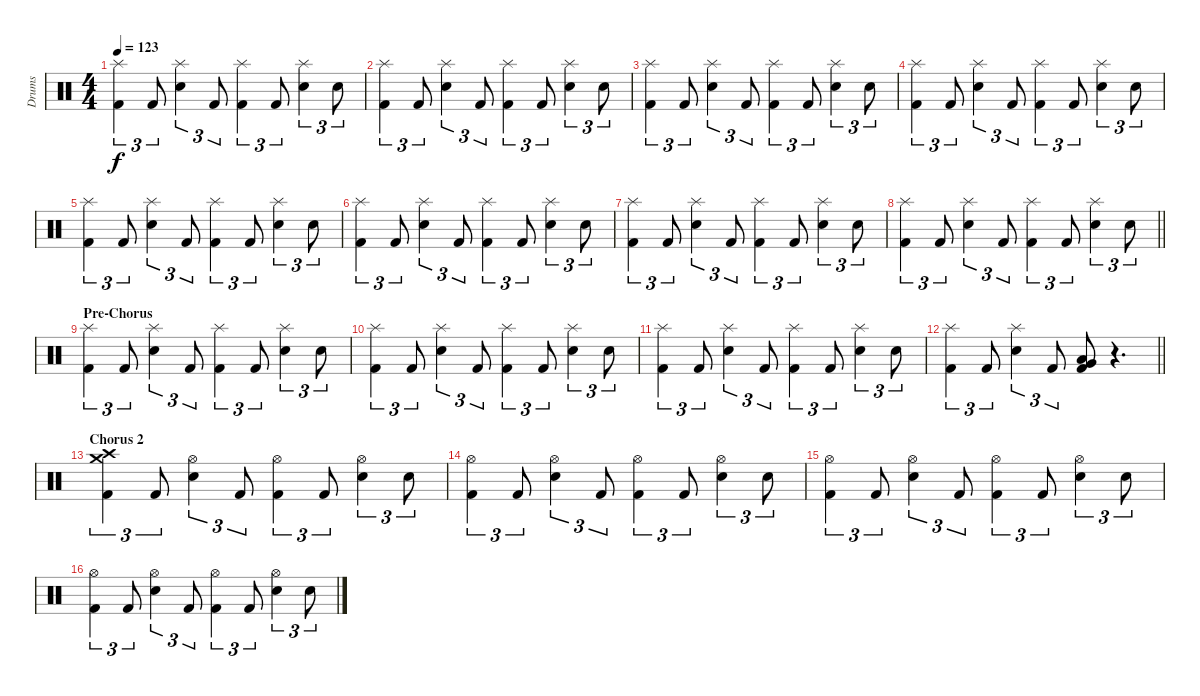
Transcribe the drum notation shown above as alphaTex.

\track ("Drums" "Drums") {instrument percussion}
\staff {score}
\articulation defaults
\ts (4 4)
\tempo 123
\clef neutral
\ks c
("Splash (hit)" "Kick (hit) 2").4{tu (3 2) dy f} "Kick (hit) 2".8{tu (3 2)} ("Splash (hit)" "Snare (hit) 2").4{tu (3 2)} "Kick (hit) 2".8{tu (3 2)} ("Splash (hit)" "Kick (hit) 2").4{tu (3 2)} "Kick (hit) 2".8{tu (3 2)} ("Splash (hit)" "Snare (hit) 2").4{tu (3 2)} "Snare (hit) 2".8{tu (3 2)} |
("Splash (hit)" "Kick (hit) 2").4{tu (3 2)} "Kick (hit) 2".8{tu (3 2)} ("Splash (hit)" "Snare (hit) 2").4{tu (3 2)} "Kick (hit) 2".8{tu (3 2)} ("Splash (hit)" "Kick (hit) 2").4{tu (3 2)} "Kick (hit) 2".8{tu (3 2)} ("Splash (hit)" "Snare (hit) 2").4{tu (3 2)} "Snare (hit) 2".8{tu (3 2)} |
("Splash (hit)" "Kick (hit) 2").4{tu (3 2)} "Kick (hit) 2".8{tu (3 2)} ("Splash (hit)" "Snare (hit) 2").4{tu (3 2)} "Kick (hit) 2".8{tu (3 2)} ("Splash (hit)" "Kick (hit) 2").4{tu (3 2)} "Kick (hit) 2".8{tu (3 2)} ("Splash (hit)" "Snare (hit) 2").4{tu (3 2)} "Snare (hit) 2".8{tu (3 2)} |
("Splash (hit)" "Kick (hit) 2").4{tu (3 2)} "Kick (hit) 2".8{tu (3 2)} ("Splash (hit)" "Snare (hit) 2").4{tu (3 2)} "Kick (hit) 2".8{tu (3 2)} ("Splash (hit)" "Kick (hit) 2").4{tu (3 2)} "Kick (hit) 2".8{tu (3 2)} ("Splash (hit)" "Snare (hit) 2").4{tu (3 2)} "Snare (hit) 2".8{tu (3 2)} |
("Splash (hit)" "Kick (hit) 2").4{tu (3 2)} "Kick (hit) 2".8{tu (3 2)} ("Splash (hit)" "Snare (hit) 2").4{tu (3 2)} "Kick (hit) 2".8{tu (3 2)} ("Splash (hit)" "Kick (hit) 2").4{tu (3 2)} "Kick (hit) 2".8{tu (3 2)} ("Splash (hit)" "Snare (hit) 2").4{tu (3 2)} "Snare (hit) 2".8{tu (3 2)} |
("Splash (hit)" "Kick (hit) 2").4{tu (3 2)} "Kick (hit) 2".8{tu (3 2)} ("Splash (hit)" "Snare (hit) 2").4{tu (3 2)} "Kick (hit) 2".8{tu (3 2)} ("Splash (hit)" "Kick (hit) 2").4{tu (3 2)} "Kick (hit) 2".8{tu (3 2)} ("Splash (hit)" "Snare (hit) 2").4{tu (3 2)} "Snare (hit) 2".8{tu (3 2)} |
("Splash (hit)" "Kick (hit) 2").4{tu (3 2)} "Kick (hit) 2".8{tu (3 2)} ("Splash (hit)" "Snare (hit) 2").4{tu (3 2)} "Kick (hit) 2".8{tu (3 2)} ("Splash (hit)" "Kick (hit) 2").4{tu (3 2)} "Kick (hit) 2".8{tu (3 2)} ("Splash (hit)" "Snare (hit) 2").4{tu (3 2)} "Snare (hit) 2".8{tu (3 2)} |
\barLineRight lightlight
("Splash (hit)" "Kick (hit) 2").4{tu (3 2)} "Kick (hit) 2".8{tu (3 2)} ("Splash (hit)" "Snare (hit) 2").4{tu (3 2)} "Kick (hit) 2".8{tu (3 2)} ("Splash (hit)" "Kick (hit) 2").4{tu (3 2)} "Kick (hit) 2".8{tu (3 2)} ("Splash (hit)" "Snare (hit) 2").4{tu (3 2)} "Snare (hit) 2".8{tu (3 2)} |
\section ("" "Pre-Chorus")
("Splash (hit)" "Kick (hit) 2").4{tu (3 2)} "Kick (hit) 2".8{tu (3 2)} ("Splash (hit)" "Snare (hit) 2").4{tu (3 2)} "Kick (hit) 2".8{tu (3 2)} ("Splash (hit)" "Kick (hit) 2").4{tu (3 2)} "Kick (hit) 2".8{tu (3 2)} ("Splash (hit)" "Snare (hit) 2").4{tu (3 2)} "Snare (hit) 2".8{tu (3 2)} |
("Splash (hit)" "Kick (hit) 2").4{tu (3 2)} "Kick (hit) 2".8{tu (3 2)} ("Splash (hit)" "Snare (hit) 2").4{tu (3 2)} "Kick (hit) 2".8{tu (3 2)} ("Splash (hit)" "Kick (hit) 2").4{tu (3 2)} "Kick (hit) 2".8{tu (3 2)} ("Splash (hit)" "Snare (hit) 2").4{tu (3 2)} "Snare (hit) 2".8{tu (3 2)} |
("Splash (hit)" "Kick (hit) 2").4{tu (3 2)} "Kick (hit) 2".8{tu (3 2)} ("Splash (hit)" "Snare (hit) 2").4{tu (3 2)} "Kick (hit) 2".8{tu (3 2)} ("Splash (hit)" "Kick (hit) 2").4{tu (3 2)} "Kick (hit) 2".8{tu (3 2)} ("Splash (hit)" "Snare (hit) 2").4{tu (3 2)} "Snare (hit) 2".8{tu (3 2)} |
\barLineRight lightlight
("Splash (hit)" "Kick (hit) 2").4{tu (3 2)} "Kick (hit) 2".8{tu (3 2)} ("Splash (hit)" "Snare (hit) 2").4{tu (3 2)} "Kick (hit) 2".8{tu (3 2)} ("Low Floor Tom (hit)" "Very Low Tom (hit)" "Kick (hit) 2").8 r.4{d} |
\section ("" "Chorus 2")
("Crash high (hit)" "Crash medium (hit)" "Kick (hit) 2").4{tu (3 2)} "Kick (hit) 2".8{tu (3 2)} ("Hi-Hat (open)" "Snare (hit) 2").4{tu (3 2)} "Kick (hit) 2".8{tu (3 2)} ("Hi-Hat (open)" "Kick (hit) 2").4{tu (3 2)} "Kick (hit) 2".8{tu (3 2)} ("Hi-Hat (open)" "Snare (hit) 2").4{tu (3 2)} "Snare (hit) 2".8{tu (3 2)} |
("Hi-Hat (open)" "Kick (hit) 2").4{tu (3 2)} "Kick (hit) 2".8{tu (3 2)} ("Hi-Hat (open)" "Snare (hit) 2").4{tu (3 2)} "Kick (hit) 2".8{tu (3 2)} ("Hi-Hat (open)" "Kick (hit) 2").4{tu (3 2)} "Kick (hit) 2".8{tu (3 2)} ("Hi-Hat (open)" "Snare (hit) 2").4{tu (3 2)} "Snare (hit) 2".8{tu (3 2)} |
("Hi-Hat (open)" "Kick (hit) 2").4{tu (3 2)} "Kick (hit) 2".8{tu (3 2)} ("Hi-Hat (open)" "Snare (hit) 2").4{tu (3 2)} "Kick (hit) 2".8{tu (3 2)} ("Hi-Hat (open)" "Kick (hit) 2").4{tu (3 2)} "Kick (hit) 2".8{tu (3 2)} ("Hi-Hat (open)" "Snare (hit) 2").4{tu (3 2)} "Snare (hit) 2".8{tu (3 2)} |
("Hi-Hat (open)" "Kick (hit) 2").4{tu (3 2)} "Kick (hit) 2".8{tu (3 2)} ("Hi-Hat (open)" "Snare (hit) 2").4{tu (3 2)} "Kick (hit) 2".8{tu (3 2)} ("Hi-Hat (open)" "Kick (hit) 2").4{tu (3 2)} "Kick (hit) 2".8{tu (3 2)} ("Hi-Hat (open)" "Snare (hit) 2").4{tu (3 2)} "Snare (hit) 2".8{tu (3 2)}
